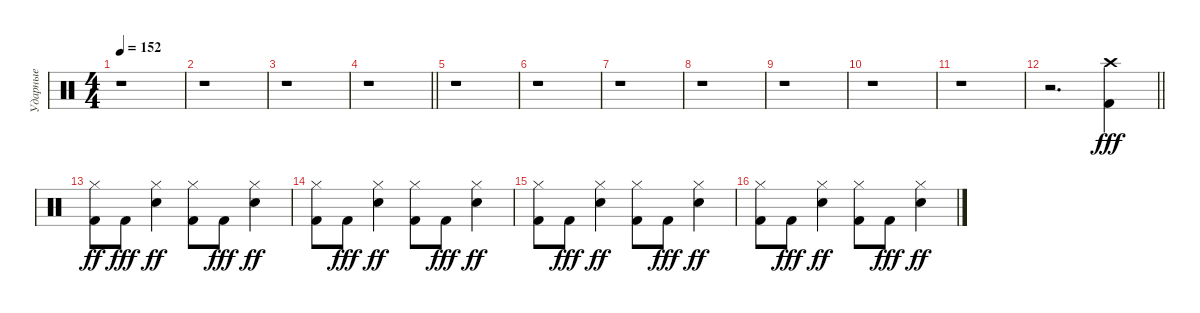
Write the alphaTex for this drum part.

\track ("Ударные" "Ударные") {instrument percussion}
\staff
\articulation defaults
\ts (4 4)
\tempo 152
\clef neutral
\ks c
r.1{dy fff} |
r.1 |
r.1 |
\barLineRight lightlight
r.1 |
r.1 |
r.1 |
r.1 |
r.1 |
r.1 |
r.1 |
r.1 |
\barLineRight lightlight
r.2{d} ("Kick (hit) 2" "Crash high (hit)").4 |
("Kick (hit) 2" "Hi-Hat (closed)").8{dy ff} "Kick (hit) 2".8{dy fff} ("Snare (hit) 2" "Hi-Hat (closed)").4{dy ff} ("Kick (hit) 2" "Hi-Hat (closed)").8 "Kick (hit) 2".8{dy fff} ("Snare (hit) 2" "Hi-Hat (closed)").4{dy ff} |
("Kick (hit) 2" "Hi-Hat (closed)").8 "Kick (hit) 2".8{dy fff} ("Snare (hit) 2" "Hi-Hat (closed)").4{dy ff} ("Kick (hit) 2" "Hi-Hat (closed)").8 "Kick (hit) 2".8{dy fff} ("Snare (hit) 2" "Hi-Hat (closed)").4{dy ff} |
("Kick (hit) 2" "Hi-Hat (closed)").8 "Kick (hit) 2".8{dy fff} ("Snare (hit) 2" "Hi-Hat (closed)").4{dy ff} ("Kick (hit) 2" "Hi-Hat (closed)").8 "Kick (hit) 2".8{dy fff} ("Snare (hit) 2" "Hi-Hat (closed)").4{dy ff} |
("Kick (hit) 2" "Hi-Hat (closed)").8 "Kick (hit) 2".8{dy fff} ("Snare (hit) 2" "Hi-Hat (closed)").4{dy ff} ("Kick (hit) 2" "Hi-Hat (closed)").8 "Kick (hit) 2".8{dy fff} ("Snare (hit) 2" "Hi-Hat (closed)").4{dy ff}
